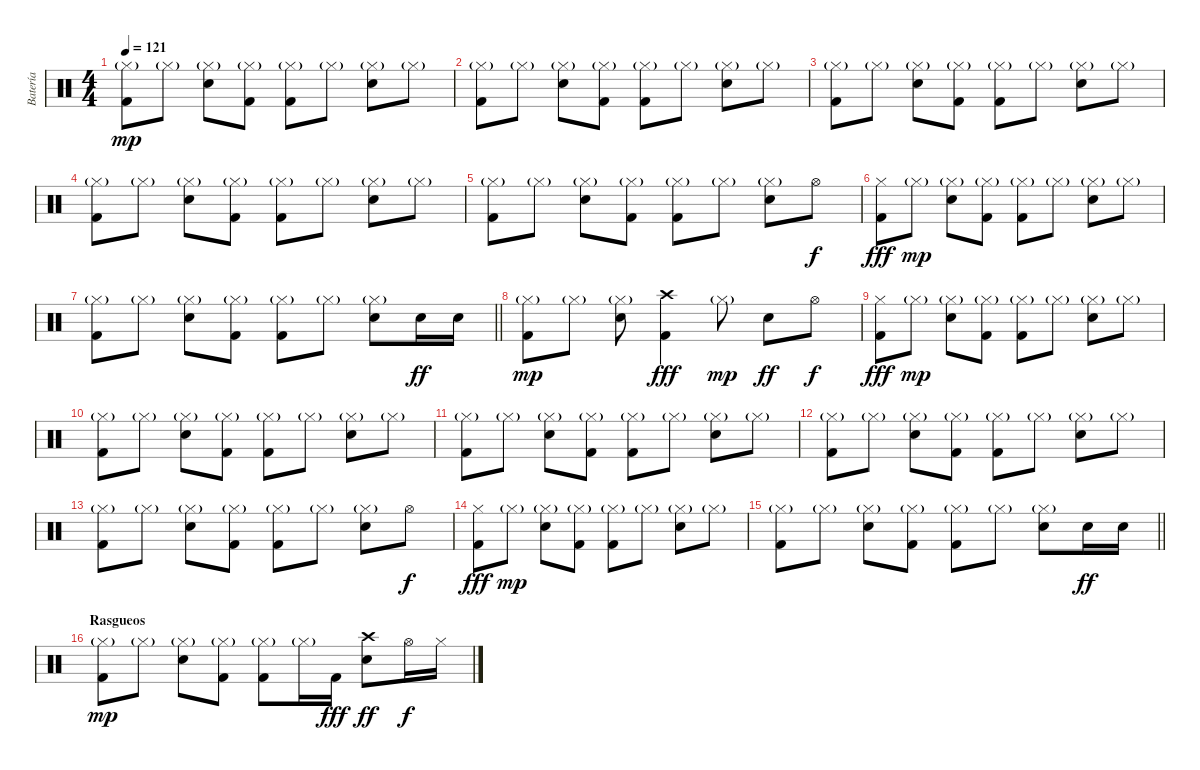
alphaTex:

\track ("Batería" "Batería") {instrument percussion}
\staff {score}
\articulation defaults
\ts (4 4)
\tempo 121
\clef neutral
\ks c
("Kick (hit) 2" "Hi-Hat (closed)"{g}).8{dy mp} "Hi-Hat (closed)"{g}.8 ("Snare (hit) 2" "Hi-Hat (closed)"{g}).8 ("Kick (hit) 2" "Hi-Hat (closed)"{g}).8 ("Kick (hit) 2" "Hi-Hat (closed)"{g}).8 "Hi-Hat (closed)"{g}.8 ("Snare (hit) 2" "Hi-Hat (closed)"{g}).8 "Hi-Hat (closed)"{g}.8 |
("Kick (hit) 2" "Hi-Hat (closed)"{g}).8 "Hi-Hat (closed)"{g}.8 ("Snare (hit) 2" "Hi-Hat (closed)"{g}).8 ("Kick (hit) 2" "Hi-Hat (closed)"{g}).8 ("Kick (hit) 2" "Hi-Hat (closed)"{g}).8 "Hi-Hat (closed)"{g}.8 ("Snare (hit) 2" "Hi-Hat (closed)"{g}).8 "Hi-Hat (closed)"{g}.8 |
("Kick (hit) 2" "Hi-Hat (closed)"{g}).8 "Hi-Hat (closed)"{g}.8 ("Snare (hit) 2" "Hi-Hat (closed)"{g}).8 ("Kick (hit) 2" "Hi-Hat (closed)"{g}).8 ("Kick (hit) 2" "Hi-Hat (closed)"{g}).8 "Hi-Hat (closed)"{g}.8 ("Snare (hit) 2" "Hi-Hat (closed)"{g}).8 "Hi-Hat (closed)"{g}.8 |
("Kick (hit) 2" "Hi-Hat (closed)"{g}).8 "Hi-Hat (closed)"{g}.8 ("Snare (hit) 2" "Hi-Hat (closed)"{g}).8 ("Kick (hit) 2" "Hi-Hat (closed)"{g}).8 ("Kick (hit) 2" "Hi-Hat (closed)"{g}).8 "Hi-Hat (closed)"{g}.8 ("Snare (hit) 2" "Hi-Hat (closed)"{g}).8 "Hi-Hat (closed)"{g}.8 |
("Kick (hit) 2" "Hi-Hat (closed)"{g}).8 "Hi-Hat (closed)"{g}.8 ("Snare (hit) 2" "Hi-Hat (closed)"{g}).8 ("Kick (hit) 2" "Hi-Hat (closed)"{g}).8 ("Kick (hit) 2" "Hi-Hat (closed)"{g}).8 "Hi-Hat (closed)"{g}.8 ("Snare (hit) 2" "Hi-Hat (closed)"{g}).8 "Hi-Hat (open)".8{dy f} |
("Kick (hit) 2" "Hi-Hat (closed)").8{dy fff} "Hi-Hat (closed)"{g}.8{dy mp} ("Snare (hit) 2" "Hi-Hat (closed)"{g}).8 ("Kick (hit) 2" "Hi-Hat (closed)"{g}).8 ("Kick (hit) 2" "Hi-Hat (closed)"{g}).8 "Hi-Hat (closed)"{g}.8 ("Snare (hit) 2" "Hi-Hat (closed)"{g}).8 "Hi-Hat (closed)"{g}.8 |
\barLineRight lightlight
("Kick (hit) 2" "Hi-Hat (closed)"{g}).8 "Hi-Hat (closed)"{g}.8 ("Snare (hit) 2" "Hi-Hat (closed)"{g}).8 ("Kick (hit) 2" "Hi-Hat (closed)"{g}).8 ("Kick (hit) 2" "Hi-Hat (closed)"{g}).8 "Hi-Hat (closed)"{g}.8 ("Snare (hit) 2" "Hi-Hat (closed)"{g}).8 "Snare (hit) 2".16{dy ff} "Snare (hit) 2".16 |
("Kick (hit) 2" "Hi-Hat (closed)"{g}).8{dy mp} "Hi-Hat (closed)"{g}.8 ("Snare (hit) 2" "Hi-Hat (closed)"{g}).8 ("Kick (hit) 2" "Crash high (hit)").4{dy fff} "Hi-Hat (closed)"{g}.8{dy mp} "Snare (hit) 2".8{dy ff} "Hi-Hat (open)".8{dy f} |
("Kick (hit) 2" "Hi-Hat (closed)").8{dy fff} "Hi-Hat (closed)"{g}.8{dy mp} ("Snare (hit) 2" "Hi-Hat (closed)"{g}).8 ("Kick (hit) 2" "Hi-Hat (closed)"{g}).8 ("Kick (hit) 2" "Hi-Hat (closed)"{g}).8 "Hi-Hat (closed)"{g}.8 ("Snare (hit) 2" "Hi-Hat (closed)"{g}).8 "Hi-Hat (closed)"{g}.8 |
("Kick (hit) 2" "Hi-Hat (closed)"{g}).8 "Hi-Hat (closed)"{g}.8 ("Snare (hit) 2" "Hi-Hat (closed)"{g}).8 ("Kick (hit) 2" "Hi-Hat (closed)"{g}).8 ("Kick (hit) 2" "Hi-Hat (closed)"{g}).8 "Hi-Hat (closed)"{g}.8 ("Snare (hit) 2" "Hi-Hat (closed)"{g}).8 "Hi-Hat (closed)"{g}.8 |
("Kick (hit) 2" "Hi-Hat (closed)"{g}).8 "Hi-Hat (closed)"{g}.8 ("Snare (hit) 2" "Hi-Hat (closed)"{g}).8 ("Kick (hit) 2" "Hi-Hat (closed)"{g}).8 ("Kick (hit) 2" "Hi-Hat (closed)"{g}).8 "Hi-Hat (closed)"{g}.8 ("Snare (hit) 2" "Hi-Hat (closed)"{g}).8 "Hi-Hat (closed)"{g}.8 |
("Kick (hit) 2" "Hi-Hat (closed)"{g}).8 "Hi-Hat (closed)"{g}.8 ("Snare (hit) 2" "Hi-Hat (closed)"{g}).8 ("Kick (hit) 2" "Hi-Hat (closed)"{g}).8 ("Kick (hit) 2" "Hi-Hat (closed)"{g}).8 "Hi-Hat (closed)"{g}.8 ("Snare (hit) 2" "Hi-Hat (closed)"{g}).8 "Hi-Hat (closed)"{g}.8 |
("Kick (hit) 2" "Hi-Hat (closed)"{g}).8 "Hi-Hat (closed)"{g}.8 ("Snare (hit) 2" "Hi-Hat (closed)"{g}).8 ("Kick (hit) 2" "Hi-Hat (closed)"{g}).8 ("Kick (hit) 2" "Hi-Hat (closed)"{g}).8 "Hi-Hat (closed)"{g}.8 ("Snare (hit) 2" "Hi-Hat (closed)"{g}).8 "Hi-Hat (open)".8{dy f} |
("Kick (hit) 2" "Hi-Hat (closed)").8{dy fff} "Hi-Hat (closed)"{g}.8{dy mp} ("Snare (hit) 2" "Hi-Hat (closed)"{g}).8 ("Kick (hit) 2" "Hi-Hat (closed)"{g}).8 ("Kick (hit) 2" "Hi-Hat (closed)"{g}).8 "Hi-Hat (closed)"{g}.8 ("Snare (hit) 2" "Hi-Hat (closed)"{g}).8 "Hi-Hat (closed)"{g}.8 |
\barLineRight lightlight
("Kick (hit) 2" "Hi-Hat (closed)"{g}).8 "Hi-Hat (closed)"{g}.8 ("Snare (hit) 2" "Hi-Hat (closed)"{g}).8 ("Kick (hit) 2" "Hi-Hat (closed)"{g}).8 ("Kick (hit) 2" "Hi-Hat (closed)"{g}).8 "Hi-Hat (closed)"{g}.8 ("Snare (hit) 2" "Hi-Hat (closed)"{g}).8 "Snare (hit) 2".16{dy ff} "Snare (hit) 2".16 |
\section ("" "Rasgueos")
("Kick (hit) 2" "Hi-Hat (closed)"{g}).8{dy mp} "Hi-Hat (closed)"{g}.8 ("Snare (hit) 2" "Hi-Hat (closed)"{g}).8 ("Kick (hit) 2" "Hi-Hat (closed)"{g}).8 ("Kick (hit) 2" "Hi-Hat (closed)"{g}).8 "Hi-Hat (closed)"{g}.16 "Kick (hit) 2".16{dy fff} ("Snare (hit) 2" "Crash high (hit)").8{dy ff} "Hi-Hat (open)".16{dy f} "Hi-Hat (closed)".16
